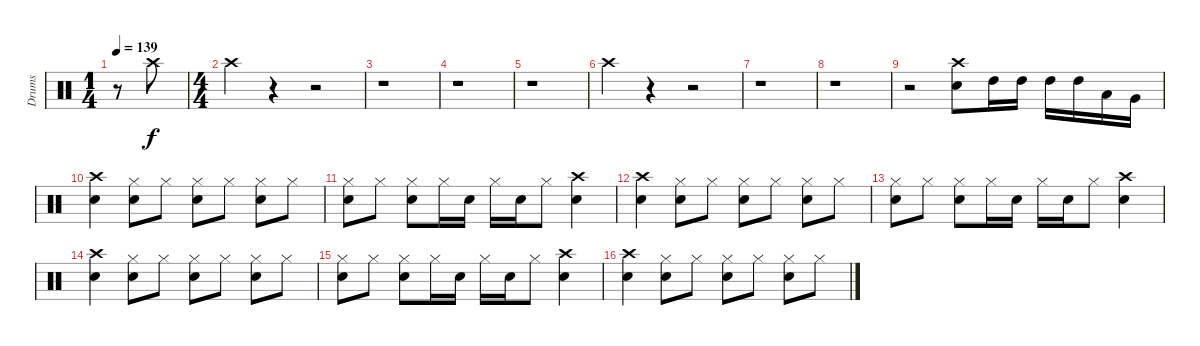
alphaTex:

\track ("Drums" "Drums") {instrument percussion}
\staff {score}
\articulation defaults
\ts (1 4)
\tempo 139
\clef neutral
\ks c
r.8{dy f} "Crash high (hit)".8 |
\ts (4 4)
"Crash high (hit)".4 r.4 r.2 |
r.1 |
r.1 |
r.1 |
"Crash high (hit)".4 r.4 r.2 |
r.1 |
r.1 |
r.2 ("Crash high (hit)" "Snare (hit) 2").8 "High Tom (hit)".16 "High Tom (hit)".16 "High Tom (hit)".16 "High Tom (hit)".16 "Low Tom (hit)".16 "Very Low Tom (hit)".16 |
("Crash high (hit)" "Snare (hit) 2").4 ("Hi-Hat (closed)" "Snare (hit) 2").8 "Hi-Hat (closed)".8 ("Hi-Hat (closed)" "Snare (hit) 2").8 "Hi-Hat (closed)".8 ("Hi-Hat (closed)" "Snare (hit) 2").8 "Hi-Hat (closed)".8 |
("Hi-Hat (closed)" "Snare (hit) 2").8 "Hi-Hat (closed)".8 ("Hi-Hat (closed)" "Snare (hit) 2").8 "Hi-Hat (closed)".16 "Snare (hit) 2".16 "Hi-Hat (closed)".16 "Snare (hit) 2".16 "Hi-Hat (closed)".8 ("Crash high (hit)" "Snare (hit) 2").4 |
("Crash high (hit)" "Snare (hit) 2").4 ("Hi-Hat (closed)" "Snare (hit) 2").8 "Hi-Hat (closed)".8 ("Hi-Hat (closed)" "Snare (hit) 2").8 "Hi-Hat (closed)".8 ("Hi-Hat (closed)" "Snare (hit) 2").8 "Hi-Hat (closed)".8 |
("Hi-Hat (closed)" "Snare (hit) 2").8 "Hi-Hat (closed)".8 ("Hi-Hat (closed)" "Snare (hit) 2").8 "Hi-Hat (closed)".16 "Snare (hit) 2".16 "Hi-Hat (closed)".16 "Snare (hit) 2".16 "Hi-Hat (closed)".8 ("Crash high (hit)" "Snare (hit) 2").4 |
("Crash high (hit)" "Snare (hit) 2").4 ("Hi-Hat (closed)" "Snare (hit) 2").8 "Hi-Hat (closed)".8 ("Hi-Hat (closed)" "Snare (hit) 2").8 "Hi-Hat (closed)".8 ("Hi-Hat (closed)" "Snare (hit) 2").8 "Hi-Hat (closed)".8 |
("Hi-Hat (closed)" "Snare (hit) 2").8 "Hi-Hat (closed)".8 ("Hi-Hat (closed)" "Snare (hit) 2").8 "Hi-Hat (closed)".16 "Snare (hit) 2".16 "Hi-Hat (closed)".16 "Snare (hit) 2".16 "Hi-Hat (closed)".8 ("Crash high (hit)" "Snare (hit) 2").4 |
("Crash high (hit)" "Snare (hit) 2").4 ("Hi-Hat (closed)" "Snare (hit) 2").8 "Hi-Hat (closed)".8 ("Hi-Hat (closed)" "Snare (hit) 2").8 "Hi-Hat (closed)".8 ("Hi-Hat (closed)" "Snare (hit) 2").8 "Hi-Hat (closed)".8
